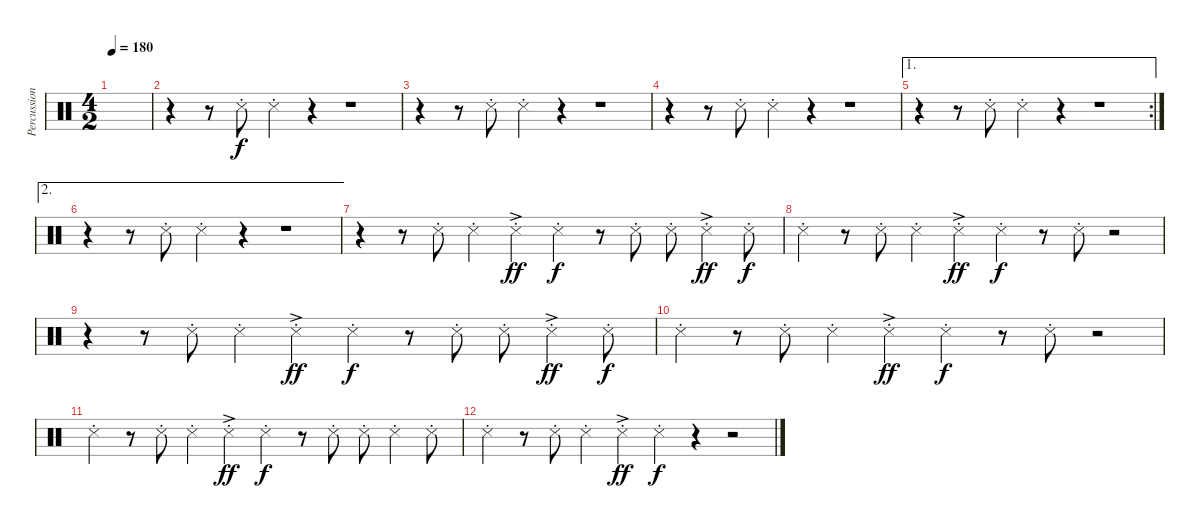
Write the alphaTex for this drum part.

\track ("Percussion" "Percussion") {instrument percussion}
\staff {score}
\articulation defaults
\ts (4 2)
\tempo 180
\clef neutral
\ks c
|
r.4 r.8 "Snare (side stick) 3"{st}.8 "Snare (side stick) 3"{st}.4 r.4 r.1 |
r.4 r.8 "Snare (side stick) 3"{st}.8 "Snare (side stick) 3"{st}.4 r.4 r.1 |
r.4 r.8 "Snare (side stick) 3"{st}.8 "Snare (side stick) 3"{st}.4 r.4 r.1 |
\ae 1
\rc 2
r.4 r.8 "Snare (side stick) 3"{st}.8 "Snare (side stick) 3"{st}.4 r.4 r.1 |
\ae 2
r.4 r.8 "Snare (side stick) 3"{st}.8 "Snare (side stick) 3"{st}.4 r.4 r.1 |
r.4 r.8 "Snare (side stick) 3"{st}.8 "Snare (side stick) 3"{st}.4 "Snare (side stick) 3"{ac st}.4{dy ff} "Snare (side stick) 3"{st}.4{dy f} r.8 "Snare (side stick) 3"{st}.8 "Snare (side stick) 3"{st}.8 "Snare (side stick) 3"{ac st}.4{dy ff} "Snare (side stick) 3"{st}.8{dy f} |
"Snare (side stick) 3"{st}.4 r.8 "Snare (side stick) 3"{st}.8 "Snare (side stick) 3"{st}.4 "Snare (side stick) 3"{ac st}.4{dy ff} "Snare (side stick) 3"{st}.4{dy f} r.8 "Snare (side stick) 3"{st}.8 r.2 |
r.4 r.8 "Snare (side stick) 3"{st}.8 "Snare (side stick) 3"{st}.4 "Snare (side stick) 3"{ac st}.4{dy ff} "Snare (side stick) 3"{st}.4{dy f} r.8 "Snare (side stick) 3"{st}.8 "Snare (side stick) 3"{st}.8 "Snare (side stick) 3"{ac st}.4{dy ff} "Snare (side stick) 3"{st}.8{dy f} |
"Snare (side stick) 3"{st}.4 r.8 "Snare (side stick) 3"{st}.8 "Snare (side stick) 3"{st}.4 "Snare (side stick) 3"{ac st}.4{dy ff} "Snare (side stick) 3"{st}.4{dy f} r.8 "Snare (side stick) 3"{st}.8 r.2 |
"Snare (side stick) 3"{st}.4 r.8 "Snare (side stick) 3"{st}.8 "Snare (side stick) 3"{st}.4 "Snare (side stick) 3"{ac st}.4{dy ff} "Snare (side stick) 3"{st}.4{dy f} r.8 "Snare (side stick) 3"{st}.8 "Snare (side stick) 3"{st}.8 "Snare (side stick) 3"{st}.4 "Snare (side stick) 3"{st}.8 |
"Snare (side stick) 3"{st}.4 r.8 "Snare (side stick) 3"{st}.8 "Snare (side stick) 3"{st}.4 "Snare (side stick) 3"{ac st}.4{dy ff} "Snare (side stick) 3"{st}.4{dy f} r.4 r.2
